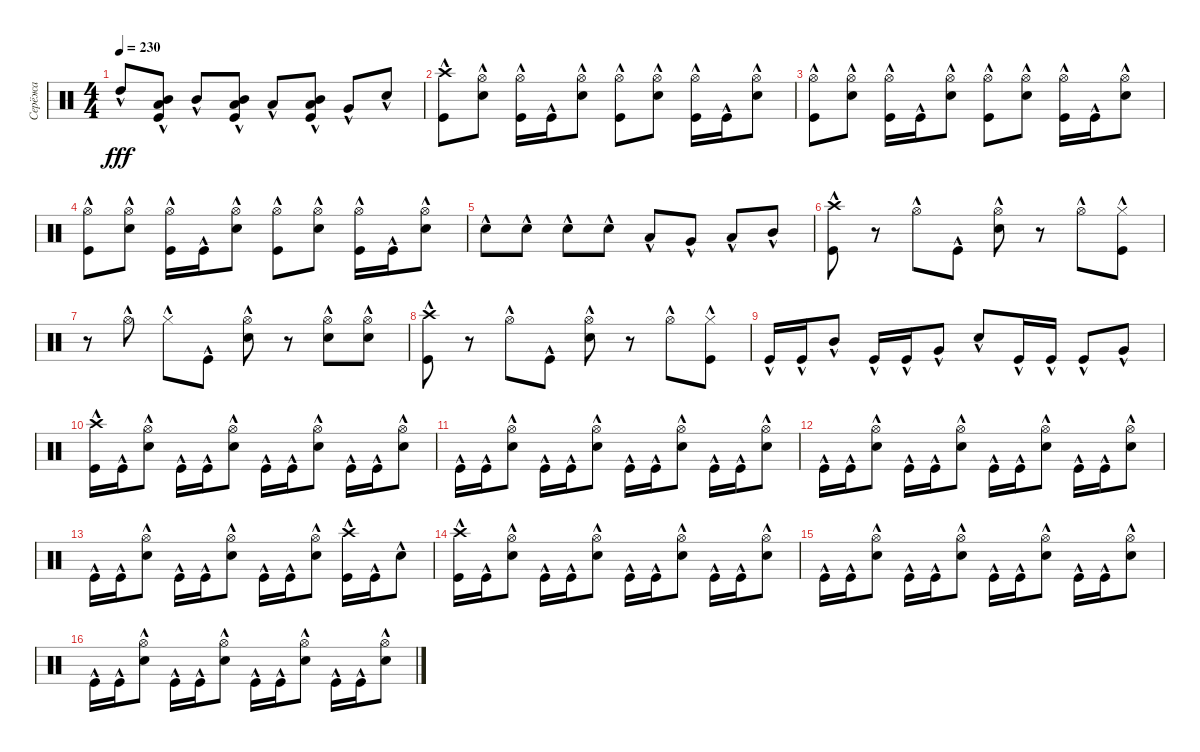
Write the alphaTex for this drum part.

\track ("Серёжа" "Серёжа") {instrument percussion}
\staff {score}
\articulation defaults
\ts (4 4)
\tempo 230
\clef neutral
\ks c "High Tom (hit)"{hac}.8{dy fff}
("Mid Tom (hit)"{hac} "Low Tom (hit)"{hac} "Kick (hit)"{hac}).8 "Mid Tom (hit)"{hac}.8 ("Mid Tom (hit)"{hac} "Low Tom (hit)"{hac} "Kick (hit)"{hac}).8 "Low Tom (hit)"{hac}.8 ("Mid Tom (hit)"{hac} "Low Tom (hit)"{hac} "Kick (hit)"{hac}).8 "Very Low Tom (hit)"{hac}.8 "Snare (hit) 2"{hac}.8 |
("Crash high (hit)"{hac} "Kick (hit)"{hac}).8 ("Hi-Hat (open)" "Snare (hit) 2"{hac}).8 ("Hi-Hat (open)" "Kick (hit)"{hac}).16 "Kick (hit)"{hac}.16 ("Hi-Hat (open)" "Snare (hit) 2"{hac}).8 ("Hi-Hat (open)" "Kick (hit)"{hac}).8 ("Hi-Hat (open)" "Snare (hit) 2"{hac}).8 ("Hi-Hat (open)" "Kick (hit)"{hac}).16 "Kick (hit)"{hac}.16 ("Hi-Hat (open)" "Snare (hit) 2"{hac}).8 |
("Hi-Hat (open)" "Kick (hit)"{hac}).8 ("Hi-Hat (open)" "Snare (hit) 2"{hac}).8 ("Hi-Hat (open)" "Kick (hit)"{hac}).16 "Kick (hit)"{hac}.16 ("Hi-Hat (open)" "Snare (hit) 2"{hac}).8 ("Hi-Hat (open)" "Kick (hit)"{hac}).8 ("Hi-Hat (open)" "Snare (hit) 2"{hac}).8 ("Hi-Hat (open)" "Kick (hit)"{hac}).16 "Kick (hit)"{hac}.16 ("Hi-Hat (open)" "Snare (hit) 2"{hac}).8 |
("Hi-Hat (open)" "Kick (hit)"{hac}).8 ("Hi-Hat (open)" "Snare (hit) 2"{hac}).8 ("Hi-Hat (open)" "Kick (hit)"{hac}).16 "Kick (hit)"{hac}.16 ("Hi-Hat (open)" "Snare (hit) 2"{hac}).8 ("Hi-Hat (open)" "Kick (hit)"{hac}).8 ("Hi-Hat (open)" "Snare (hit) 2"{hac}).8 ("Hi-Hat (open)" "Kick (hit)"{hac}).16 "Kick (hit)"{hac}.16 ("Hi-Hat (open)" "Snare (hit) 2"{hac}).8 |
"Snare (hit) 2"{hac}.8 "Snare (hit) 2"{hac}.8 "Snare (hit) 2"{hac}.8 "Snare (hit) 2"{hac}.8 "Low Tom (hit)"{hac}.8 "Very Low Tom (hit)"{hac}.8 "Low Tom (hit)"{hac}.8 "Mid Tom (hit)"{hac}.8 |
("Crash high (hit)"{hac} "Kick (hit)"{hac}).8 r.8 "Hi-Hat (open)"{hac}.8 "Kick (hit)"{hac}.8 ("Hi-Hat (open)" "Snare (hit) 2"{hac}).8 r.8 "Hi-Hat (open)"{hac}.8 ("Hi-Hat (closed)"{hac} "Kick (hit)"{hac}).8 |
r.8 "Hi-Hat (open)"{hac}.8 "Hi-Hat (closed)"{hac}.8 "Kick (hit)"{hac}.8 ("Hi-Hat (open)" "Snare (hit) 2"{hac}).8 r.8 ("Hi-Hat (open)" "Snare (hit) 2"{hac}).8 ("Hi-Hat (open)" "Snare (hit) 2"{hac}).8 |
("Crash high (hit)"{hac} "Kick (hit)"{hac}).8 r.8 "Hi-Hat (open)"{hac}.8 "Kick (hit)"{hac}.8 ("Hi-Hat (open)" "Snare (hit) 2"{hac}).8 r.8 "Hi-Hat (open)"{hac}.8 ("Hi-Hat (closed)"{hac} "Kick (hit)"{hac}).8 |
"Kick (hit)"{hac}.16 "Kick (hit)"{hac}.16 "Mid Tom (hit)"{hac}.8 "Kick (hit)"{hac}.16 "Kick (hit)"{hac}.16 "Very Low Tom (hit)"{hac}.8 "Snare (hit) 2"{hac}.8 "Kick (hit)"{hac}.16 "Kick (hit)"{hac}.16 "Kick (hit)"{hac}.8 "Very Low Tom (hit)"{hac}.8 |
("Crash high (hit)"{hac} "Kick (hit)"{hac}).16 "Kick (hit)"{hac}.16 ("Hi-Hat (open)" "Snare (hit) 2"{hac}).8 "Kick (hit)"{hac}.16 "Kick (hit)"{hac}.16 ("Hi-Hat (open)" "Snare (hit) 2"{hac}).8 "Kick (hit)"{hac}.16 "Kick (hit)"{hac}.16 ("Hi-Hat (open)" "Snare (hit) 2"{hac}).8 "Kick (hit)"{hac}.16 "Kick (hit)"{hac}.16 ("Hi-Hat (open)" "Snare (hit) 2"{hac}).8 |
"Kick (hit)"{hac}.16 "Kick (hit)"{hac}.16 ("Hi-Hat (open)" "Snare (hit) 2"{hac}).8 "Kick (hit)"{hac}.16 "Kick (hit)"{hac}.16 ("Hi-Hat (open)" "Snare (hit) 2"{hac}).8 "Kick (hit)"{hac}.16 "Kick (hit)"{hac}.16 ("Hi-Hat (open)" "Snare (hit) 2"{hac}).8 "Kick (hit)"{hac}.16 "Kick (hit)"{hac}.16 ("Hi-Hat (open)" "Snare (hit) 2"{hac}).8 |
"Kick (hit)"{hac}.16 "Kick (hit)"{hac}.16 ("Hi-Hat (open)" "Snare (hit) 2"{hac}).8 "Kick (hit)"{hac}.16 "Kick (hit)"{hac}.16 ("Hi-Hat (open)" "Snare (hit) 2"{hac}).8 "Kick (hit)"{hac}.16 "Kick (hit)"{hac}.16 ("Hi-Hat (open)" "Snare (hit) 2"{hac}).8 "Kick (hit)"{hac}.16 "Kick (hit)"{hac}.16 ("Hi-Hat (open)" "Snare (hit) 2"{hac}).8 |
"Kick (hit)"{hac}.16 "Kick (hit)"{hac}.16 ("Hi-Hat (open)" "Snare (hit) 2"{hac}).8 "Kick (hit)"{hac}.16 "Kick (hit)"{hac}.16 ("Hi-Hat (open)" "Snare (hit) 2"{hac}).8 "Kick (hit)"{hac}.16 "Kick (hit)"{hac}.16 ("Hi-Hat (open)" "Snare (hit) 2"{hac}).8 ("Crash high (hit)"{hac} "Kick (hit)"{hac}).16 "Kick (hit)"{hac}.16 "Snare (hit) 2"{hac}.8 |
("Crash high (hit)"{hac} "Kick (hit)"{hac}).16 "Kick (hit)"{hac}.16 ("Hi-Hat (open)" "Snare (hit) 2"{hac}).8 "Kick (hit)"{hac}.16 "Kick (hit)"{hac}.16 ("Hi-Hat (open)" "Snare (hit) 2"{hac}).8 "Kick (hit)"{hac}.16 "Kick (hit)"{hac}.16 ("Hi-Hat (open)" "Snare (hit) 2"{hac}).8 "Kick (hit)"{hac}.16 "Kick (hit)"{hac}.16 ("Hi-Hat (open)" "Snare (hit) 2"{hac}).8 |
"Kick (hit)"{hac}.16 "Kick (hit)"{hac}.16 ("Hi-Hat (open)" "Snare (hit) 2"{hac}).8 "Kick (hit)"{hac}.16 "Kick (hit)"{hac}.16 ("Hi-Hat (open)" "Snare (hit) 2"{hac}).8 "Kick (hit)"{hac}.16 "Kick (hit)"{hac}.16 ("Hi-Hat (open)" "Snare (hit) 2"{hac}).8 "Kick (hit)"{hac}.16 "Kick (hit)"{hac}.16 ("Hi-Hat (open)" "Snare (hit) 2"{hac}).8 |
"Kick (hit)"{hac}.16 "Kick (hit)"{hac}.16 ("Hi-Hat (open)" "Snare (hit) 2"{hac}).8 "Kick (hit)"{hac}.16 "Kick (hit)"{hac}.16 ("Hi-Hat (open)" "Snare (hit) 2"{hac}).8 "Kick (hit)"{hac}.16 "Kick (hit)"{hac}.16 ("Hi-Hat (open)" "Snare (hit) 2"{hac}).8 "Kick (hit)"{hac}.16 "Kick (hit)"{hac}.16 ("Hi-Hat (open)" "Snare (hit) 2"{hac}).8
